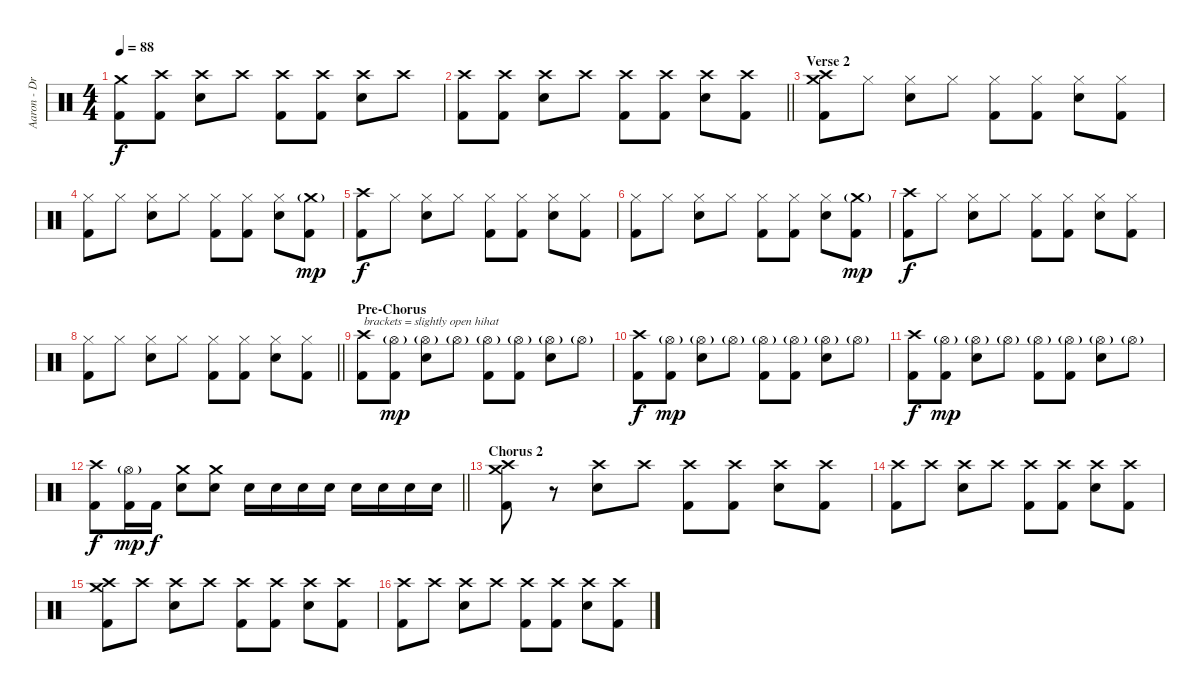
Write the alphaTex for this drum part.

\track ("Aaron - Drums" "Aaron - Dr") {instrument percussion}
\staff {score}
\articulation defaults
\ts (4 4)
\tempo 88
\clef neutral
\ks c
("Crash medium (hit)" "Kick (hit) 2").8{dy f} ("Crash high (hit)" "Kick (hit) 2").8 ("Crash high (hit)" "Electric Snare (hit)").8 "Crash high (hit)".8 ("Crash high (hit)" "Kick (hit) 2").8 ("Crash high (hit)" "Kick (hit) 2").8 ("Crash high (hit)" "Electric Snare (hit)").8 "Crash high (hit)".8 |
\barLineRight lightlight
("Crash high (hit)" "Kick (hit) 2").8 ("Crash high (hit)" "Kick (hit) 2").8 ("Crash high (hit)" "Electric Snare (hit)").8 "Crash high (hit)".8 ("Crash high (hit)" "Kick (hit) 2").8 ("Crash high (hit)" "Kick (hit) 2").8 ("Crash high (hit)" "Electric Snare (hit)").8 ("Crash high (hit)" "Kick (hit) 2").8 |
\section ("" "Verse 2")
("Crash medium (hit)" "Crash high (hit)" "Kick (hit) 2").8 "Hi-Hat (closed)".8 ("Hi-Hat (closed)" "Electric Snare (hit)").8 "Hi-Hat (closed)".8 ("Hi-Hat (closed)" "Kick (hit) 2").8 ("Hi-Hat (closed)" "Kick (hit) 2").8 ("Hi-Hat (closed)" "Electric Snare (hit)").8 ("Hi-Hat (closed)" "Kick (hit) 2").8 |
("Hi-Hat (closed)" "Kick (hit) 2").8 "Hi-Hat (closed)".8 ("Hi-Hat (closed)" "Electric Snare (hit)").8 "Hi-Hat (closed)".8 ("Hi-Hat (closed)" "Kick (hit) 2").8 ("Hi-Hat (closed)" "Kick (hit) 2").8 ("Hi-Hat (closed)" "Electric Snare (hit)").8 ("Crash medium (hit)"{g} "Kick (hit) 2").8{dy mp} |
("Crash high (hit)" "Kick (hit) 2").8{dy f} "Hi-Hat (closed)".8 ("Hi-Hat (closed)" "Electric Snare (hit)").8 "Hi-Hat (closed)".8 ("Hi-Hat (closed)" "Kick (hit) 2").8 ("Hi-Hat (closed)" "Kick (hit) 2").8 ("Hi-Hat (closed)" "Electric Snare (hit)").8 ("Hi-Hat (closed)" "Kick (hit) 2").8 |
("Hi-Hat (closed)" "Kick (hit) 2").8 "Hi-Hat (closed)".8 ("Hi-Hat (closed)" "Electric Snare (hit)").8 "Hi-Hat (closed)".8 ("Hi-Hat (closed)" "Kick (hit) 2").8 ("Hi-Hat (closed)" "Kick (hit) 2").8 ("Hi-Hat (closed)" "Electric Snare (hit)").8 ("Crash medium (hit)"{g} "Kick (hit) 2").8{dy mp} |
("Crash high (hit)" "Kick (hit) 2").8{dy f} "Hi-Hat (closed)".8 ("Hi-Hat (closed)" "Electric Snare (hit)").8 "Hi-Hat (closed)".8 ("Hi-Hat (closed)" "Kick (hit) 2").8 ("Hi-Hat (closed)" "Kick (hit) 2").8 ("Hi-Hat (closed)" "Electric Snare (hit)").8 ("Hi-Hat (closed)" "Kick (hit) 2").8 |
\barLineRight lightlight
("Hi-Hat (closed)" "Kick (hit) 2").8 "Hi-Hat (closed)".8 ("Hi-Hat (closed)" "Electric Snare (hit)").8 "Hi-Hat (closed)".8 ("Hi-Hat (closed)" "Kick (hit) 2").8 ("Hi-Hat (closed)" "Kick (hit) 2").8 ("Hi-Hat (closed)" "Electric Snare (hit)").8 ("Hi-Hat (closed)" "Kick (hit) 2").8 |
\section ("" "Pre-Chorus")
("Crash high (hit)" "Kick (hit) 2").8{txt "brackets = slightly open hihat"} ("Hi-Hat (open)"{g} "Kick (hit) 2").8{dy mp} ("Hi-Hat (open)"{g} "Electric Snare (hit)").8 "Hi-Hat (open)"{g}.8 ("Hi-Hat (open)"{g} "Kick (hit) 2").8 ("Hi-Hat (open)"{g} "Kick (hit) 2").8 ("Hi-Hat (open)"{g} "Electric Snare (hit)").8 "Hi-Hat (open)"{g}.8 |
("Crash high (hit)" "Kick (hit) 2").8{dy f} ("Hi-Hat (open)"{g} "Kick (hit) 2").8{dy mp} ("Hi-Hat (open)"{g} "Electric Snare (hit)").8 "Hi-Hat (open)"{g}.8 ("Hi-Hat (open)"{g} "Kick (hit) 2").8 ("Hi-Hat (open)"{g} "Kick (hit) 2").8 ("Hi-Hat (open)"{g} "Electric Snare (hit)").8 "Hi-Hat (open)"{g}.8 |
("Crash high (hit)" "Kick (hit) 2").8{dy f} ("Hi-Hat (open)"{g} "Kick (hit) 2").8{dy mp} ("Hi-Hat (open)"{g} "Electric Snare (hit)").8 "Hi-Hat (open)"{g}.8 ("Hi-Hat (open)"{g} "Kick (hit) 2").8 ("Hi-Hat (open)"{g} "Kick (hit) 2").8 ("Hi-Hat (open)"{g} "Electric Snare (hit)").8 "Hi-Hat (open)"{g}.8 |
\barLineRight lightlight
("Crash high (hit)" "Kick (hit) 2").8{dy f} ("Hi-Hat (open)"{g} "Kick (hit) 2").16{dy mp} "Kick (hit) 2".16{dy f} ("Crash medium (hit)" "Electric Snare (hit)").8 ("Crash medium (hit)" "Electric Snare (hit)").8 "Electric Snare (hit)".16 "Electric Snare (hit)".16 "Electric Snare (hit)".16 "Electric Snare (hit)".16 "Electric Snare (hit)".16 "Electric Snare (hit)".16 "Electric Snare (hit)".16 "Electric Snare (hit)".16 |
\section ("" "Chorus 2")
("Crash high (hit)" "Crash medium (hit)" "Kick (hit) 2").8 r.8 ("Crash high (hit)" "Electric Snare (hit)").8 "Crash high (hit)".8 ("Crash high (hit)" "Kick (hit) 2").8 ("Crash high (hit)" "Kick (hit) 2").8 ("Crash high (hit)" "Electric Snare (hit)").8 ("Crash high (hit)" "Kick (hit) 2").8 |
("Crash high (hit)" "Kick (hit) 2").8 "Crash high (hit)".8 ("Crash high (hit)" "Electric Snare (hit)").8 "Crash high (hit)".8 ("Crash high (hit)" "Kick (hit) 2").8 ("Crash high (hit)" "Kick (hit) 2").8 ("Crash high (hit)" "Electric Snare (hit)").8 ("Crash high (hit)" "Kick (hit) 2").8 |
("Crash high (hit)" "Crash medium (hit)" "Kick (hit) 2").8 "Crash high (hit)".8 ("Crash high (hit)" "Electric Snare (hit)").8 "Crash high (hit)".8 ("Crash high (hit)" "Kick (hit) 2").8 ("Crash high (hit)" "Kick (hit) 2").8 ("Crash high (hit)" "Electric Snare (hit)").8 ("Crash high (hit)" "Kick (hit) 2").8 |
("Crash high (hit)" "Kick (hit) 2").8 "Crash high (hit)".8 ("Crash high (hit)" "Electric Snare (hit)").8 "Crash high (hit)".8 ("Crash high (hit)" "Kick (hit) 2").8 ("Crash high (hit)" "Kick (hit) 2").8 ("Crash high (hit)" "Electric Snare (hit)").8 ("Crash high (hit)" "Kick (hit) 2").8
